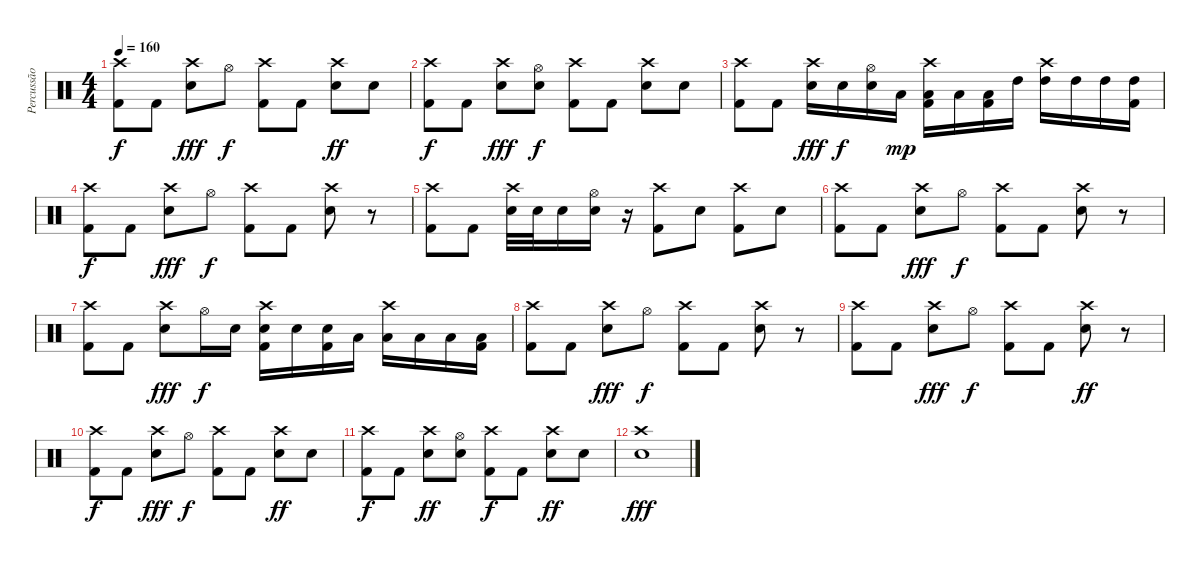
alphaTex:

\track ("Percussão" "Percussão") {instrument percussion}
\staff {score}
\articulation defaults
\ts (4 4)
\tempo 160
\clef neutral
\ks c
("Crash high (hit)" "Kick (hit) 2").8{dy f} "Kick (hit) 2".8 ("Crash high (hit)" "Electric Snare (hit)").8{dy fff} "Hi-Hat (open)".8{dy f} ("Crash high (hit)" "Kick (hit) 2").8 "Kick (hit) 2".8 ("Crash high (hit)" "Electric Snare (hit)").8{dy ff} "Electric Snare (hit)".8 |
("Crash high (hit)" "Kick (hit) 2").8{dy f} "Kick (hit) 2".8 ("Crash high (hit)" "Electric Snare (hit)").8{dy fff} ("Hi-Hat (open)" "Electric Snare (hit)").8{dy f} ("Crash high (hit)" "Kick (hit) 2").8 "Kick (hit) 2".8 ("Crash high (hit)" "Electric Snare (hit)").8 "Electric Snare (hit)".8 |
("Crash high (hit)" "Kick (hit) 2").8 "Kick (hit) 2".8 ("Crash high (hit)" "Electric Snare (hit)").16{dy fff} "Electric Snare (hit)".16{dy f} ("Hi-Hat (open)" "Electric Snare (hit)").16 "Low Floor Tom (hit)".16{dy mp} ("Crash high (hit)" "Low Floor Tom (hit)" "Kick (hit) 2").16 "Low Floor Tom (hit)".16 ("Low Floor Tom (hit)" "Kick (hit) 2").16 "High Tom (hit)".16 ("Crash high (hit)" "High Tom (hit)").16 "High Tom (hit)".16 "High Tom (hit)".16 ("High Tom (hit)" "Kick (hit) 2").16 |
("Crash high (hit)" "Kick (hit) 2").8{dy f} "Kick (hit) 2".8 ("Crash high (hit)" "Electric Snare (hit)").8{dy fff} "Hi-Hat (open)".8{dy f} ("Crash high (hit)" "Kick (hit) 2").8 "Kick (hit) 2".8 ("Crash high (hit)" "Electric Snare (hit)").8 r.8 |
("Crash high (hit)" "Kick (hit) 2").8 "Kick (hit) 2".8 ("Crash high (hit)" "Electric Snare (hit)").32 "Electric Snare (hit)".32 "Electric Snare (hit)".16 ("Hi-Hat (open)" "Electric Snare (hit)").16 r.16 ("Crash high (hit)" "Kick (hit) 2").8 "Electric Snare (hit)".8 ("Crash high (hit)" "Kick (hit) 2").8 "Electric Snare (hit)".8 |
("Crash high (hit)" "Kick (hit) 2").8 "Kick (hit) 2".8 ("Crash high (hit)" "Electric Snare (hit)").8{dy fff} "Hi-Hat (open)".8{dy f} ("Crash high (hit)" "Kick (hit) 2").8 "Kick (hit) 2".8 ("Crash high (hit)" "Electric Snare (hit)").8 r.8 |
("Crash high (hit)" "Kick (hit) 2").8 "Kick (hit) 2".8 ("Crash high (hit)" "Electric Snare (hit)").8{dy fff} "Hi-Hat (open)".16{dy f} "Electric Snare (hit)".16 ("Crash high (hit)" "Electric Snare (hit)" "Kick (hit) 2").16 "Electric Snare (hit)".16 ("Electric Snare (hit)" "Kick (hit) 2").16 "Low Tom (hit)".16 ("Crash high (hit)" "Low Tom (hit)").16 "Low Tom (hit)".16 "Low Tom (hit)".16 ("Low Tom (hit)" "Kick (hit) 2").16 |
("Crash high (hit)" "Kick (hit) 2").8 "Kick (hit) 2".8 ("Crash high (hit)" "Electric Snare (hit)").8{dy fff} "Hi-Hat (open)".8{dy f} ("Crash high (hit)" "Kick (hit) 2").8 "Kick (hit) 2".8 ("Crash high (hit)" "Electric Snare (hit)").8 r.8 |
("Crash high (hit)" "Kick (hit) 2").8 "Kick (hit) 2".8 ("Crash high (hit)" "Electric Snare (hit)").8{dy fff} "Hi-Hat (open)".8{dy f} ("Crash high (hit)" "Kick (hit) 2").8 "Kick (hit) 2".8 ("Crash high (hit)" "Electric Snare (hit)").8{dy ff} r.8 |
("Crash high (hit)" "Kick (hit) 2").8{dy f} "Kick (hit) 2".8 ("Crash high (hit)" "Electric Snare (hit)").8{dy fff} "Hi-Hat (open)".8{dy f} ("Crash high (hit)" "Kick (hit) 2").8 "Kick (hit) 2".8 ("Crash high (hit)" "Electric Snare (hit)").8{dy ff} "Electric Snare (hit)".8 |
("Crash high (hit)" "Kick (hit) 2").8{dy f} "Kick (hit) 2".8 ("Crash high (hit)" "Electric Snare (hit)").8{dy ff} ("Hi-Hat (open)" "Electric Snare (hit)").8 ("Crash high (hit)" "Kick (hit) 2").8{dy f} "Kick (hit) 2".8 ("Crash high (hit)" "Electric Snare (hit)").8{dy ff} "Electric Snare (hit)".8 |
("Electric Snare (hit)" "Crash high (hit)").1{dy fff}
